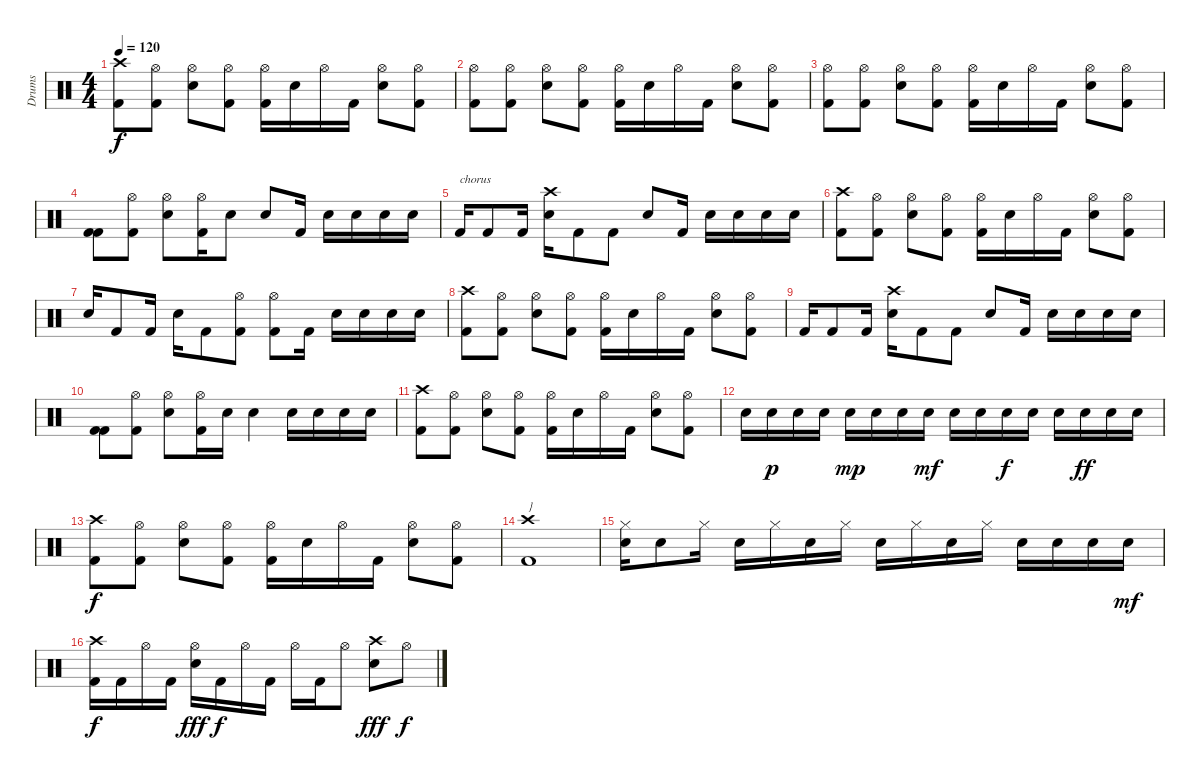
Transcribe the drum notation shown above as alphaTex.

\track ("Drums" "Drums") {instrument percussion}
\staff {score}
\articulation defaults
\ts (4 4)
\tempo 120
\clef neutral
\ks c
("Kick (hit) 2" "Crash high (hit)").8{dy f} ("Hi-Hat (open)" "Kick (hit) 2").8 ("Hi-Hat (open)" "Snare (hit) 2").8 ("Hi-Hat (open)" "Kick (hit) 2").8 ("Hi-Hat (open)" "Kick (hit) 2").16 "Snare (hit) 2".16 "Hi-Hat (open)".16 "Kick (hit) 2".16 ("Hi-Hat (open)" "Snare (hit) 2").8 ("Hi-Hat (open)" "Kick (hit) 2").8 |
("Hi-Hat (open)" "Kick (hit) 2").8 ("Hi-Hat (open)" "Kick (hit) 2").8 ("Hi-Hat (open)" "Snare (hit) 2").8 ("Hi-Hat (open)" "Kick (hit) 2").8 ("Hi-Hat (open)" "Kick (hit) 2").16 "Snare (hit) 2".16 "Hi-Hat (open)".16 "Kick (hit) 2".16 ("Hi-Hat (open)" "Snare (hit) 2").8 ("Hi-Hat (open)" "Kick (hit) 2").8 |
("Hi-Hat (open)" "Kick (hit) 2").8 ("Hi-Hat (open)" "Kick (hit) 2").8 ("Hi-Hat (open)" "Snare (hit) 2").8 ("Hi-Hat (open)" "Kick (hit) 2").8 ("Hi-Hat (open)" "Kick (hit) 2").16 "Snare (hit) 2".16 "Hi-Hat (open)".16 "Kick (hit) 2".16 ("Hi-Hat (open)" "Snare (hit) 2").8 ("Hi-Hat (open)" "Kick (hit) 2").8 |
("Kick (hit) 2" "Kick (hit) 2").8 ("Hi-Hat (open)" "Kick (hit) 2").8 ("Hi-Hat (open)" "Snare (hit) 2").8 ("Hi-Hat (open)" "Kick (hit) 2").16 "Snare (hit) 2".8 "Snare (hit) 2".8 "Kick (hit) 2".16 "Snare (hit) 2".16 "Snare (hit) 2".16 "Snare (hit) 2".16 "Snare (hit) 2".16 |
"Kick (hit) 2".16{txt "chorus"} "Kick (hit) 2".8 "Kick (hit) 2".16 ("Crash high (hit)" "Snare (hit) 2").16 "Kick (hit) 2".8 "Kick (hit) 2".8 "Snare (hit) 2".8 "Kick (hit) 2".16 "Snare (hit) 2".16 "Snare (hit) 2".16 "Snare (hit) 2".16 "Snare (hit) 2".16 |
("Kick (hit) 2" "Crash high (hit)").8 ("Hi-Hat (open)" "Kick (hit) 2").8 ("Hi-Hat (open)" "Snare (hit) 2").8 ("Hi-Hat (open)" "Kick (hit) 2").8 ("Hi-Hat (open)" "Kick (hit) 2").16 "Snare (hit) 2".16 "Hi-Hat (open)".16 "Kick (hit) 2".16 ("Hi-Hat (open)" "Snare (hit) 2").8 ("Hi-Hat (open)" "Kick (hit) 2").8 |
"Snare (hit) 2".16 "Kick (hit) 2".8 "Kick (hit) 2".16 "Snare (hit) 2".16 "Kick (hit) 2".8 ("Hi-Hat (open)" "Kick (hit) 2").8 ("Hi-Hat (open)" "Kick (hit) 2").8 "Kick (hit) 2".16 "Snare (hit) 2".16 "Snare (hit) 2".16 "Snare (hit) 2".16 "Snare (hit) 2".16 |
("Kick (hit) 2" "Crash high (hit)").8 ("Hi-Hat (open)" "Kick (hit) 2").8 ("Hi-Hat (open)" "Snare (hit) 2").8 ("Hi-Hat (open)" "Kick (hit) 2").8 ("Hi-Hat (open)" "Kick (hit) 2").16 "Snare (hit) 2".16 "Hi-Hat (open)".16 "Kick (hit) 2".16 ("Hi-Hat (open)" "Snare (hit) 2").8 ("Hi-Hat (open)" "Kick (hit) 2").8 |
"Kick (hit) 2".16 "Kick (hit) 2".8 "Kick (hit) 2".16 ("Crash high (hit)" "Snare (hit) 2").16 "Kick (hit) 2".8 "Kick (hit) 2".8 "Snare (hit) 2".8 "Kick (hit) 2".16 "Snare (hit) 2".16 "Snare (hit) 2".16 "Snare (hit) 2".16 "Snare (hit) 2".16 |
("Kick (hit) 2" "Kick (hit) 2").8 ("Hi-Hat (open)" "Kick (hit) 2").8 ("Hi-Hat (open)" "Snare (hit) 2").8 ("Hi-Hat (open)" "Kick (hit) 2").16 "Snare (hit) 2".16 "Snare (hit) 2".4 "Snare (hit) 2".16 "Snare (hit) 2".16 "Snare (hit) 2".16 "Snare (hit) 2".16 |
("Kick (hit) 2" "Crash high (hit)").8 ("Hi-Hat (open)" "Kick (hit) 2").8 ("Hi-Hat (open)" "Snare (hit) 2").8 ("Hi-Hat (open)" "Kick (hit) 2").8 ("Hi-Hat (open)" "Kick (hit) 2").16 "Snare (hit) 2".16 "Hi-Hat (open)".16 "Kick (hit) 2".16 ("Hi-Hat (open)" "Snare (hit) 2").8 ("Hi-Hat (open)" "Kick (hit) 2").8 |
"Snare (hit) 2".16 "Snare (hit) 2".16{dy p} "Snare (hit) 2".16 "Snare (hit) 2".16 "Snare (hit) 2".16{dy mp} "Snare (hit) 2".16 "Snare (hit) 2".16 "Snare (hit) 2".16{dy mf} "Snare (hit) 2".16 "Snare (hit) 2".16 "Snare (hit) 2".16{dy f} "Snare (hit) 2".16 "Snare (hit) 2".16 "Snare (hit) 2".16{dy ff} "Snare (hit) 2".16 "Snare (hit) 2".16 |
("Kick (hit) 2" "Crash high (hit)").8{dy f} ("Hi-Hat (open)" "Kick (hit) 2").8 ("Hi-Hat (open)" "Snare (hit) 2").8 ("Hi-Hat (open)" "Kick (hit) 2").8 ("Hi-Hat (open)" "Kick (hit) 2").16 "Snare (hit) 2".16 "Hi-Hat (open)".16 "Kick (hit) 2".16 ("Hi-Hat (open)" "Snare (hit) 2").8 ("Hi-Hat (open)" "Kick (hit) 2").8 |
("Crash high (hit)" "Kick (hit) 2").1{txt "}"} |
("Hi-Hat (closed)" "Snare (hit) 2").16 "Snare (hit) 2".8 "Hi-Hat (closed)".16 "Snare (hit) 2".16 "Hi-Hat (closed)".16 "Snare (hit) 2".16 "Hi-Hat (closed)".16 "Snare (hit) 2".16 "Hi-Hat (closed)".16 "Snare (hit) 2".16 "Hi-Hat (closed)".16 "Snare (hit) 2".16 "Snare (hit) 2".16 "Snare (hit) 2".16 "Snare (hit) 2".16{dy mf} |
("Kick (hit) 2" "Crash high (hit)").16{dy f} "Kick (hit) 2".16 "Hi-Hat (open)".16 "Kick (hit) 2".16 ("Hi-Hat (open)" "Snare (hit) 2").16{dy fff} "Kick (hit) 2".16{dy f} "Hi-Hat (open)".16 "Kick (hit) 2".16 "Hi-Hat (open)".16 "Kick (hit) 2".16 "Hi-Hat (open)".8 ("Snare (hit) 2" "Crash high (hit)").8{dy fff} "Hi-Hat (open)".8{dy f}
